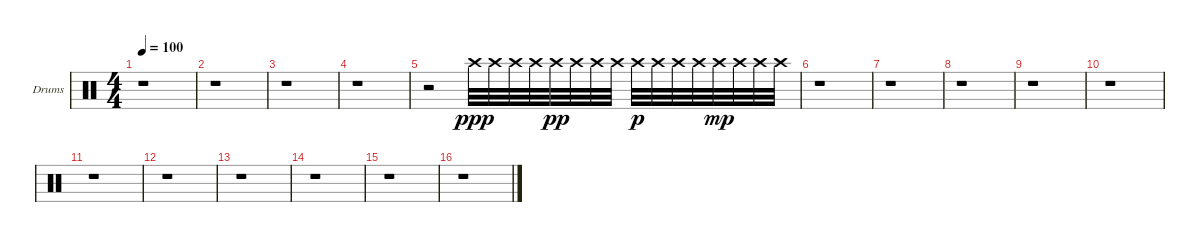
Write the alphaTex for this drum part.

\bracketExtendMode groupsimilarinstruments
\firstSystemTrackNameOrientation horizontal
\otherSystemsTrackNameOrientation horizontal
\track ("Drumkit (Christoph)" "Drums") {instrument percussion}
\staff {score}
\articulation defaults
\ts (4 4)
\tempo 100
\clef neutral
\ks c
r.1{dy f} |
r.1 |
r.1 |
r.1 |
r.2 "Crash high (hit)".32{dy ppp} "Crash high (hit)".32 "Crash high (hit)".32 "Crash high (hit)".32 "Crash high (hit)".32{dy pp} "Crash high (hit)".32 "Crash high (hit)".32 "Crash high (hit)".32 "Crash high (hit)".32{dy p} "Crash high (hit)".32 "Crash high (hit)".32 "Crash high (hit)".32 "Crash high (hit)".32{dy mp} "Crash high (hit)".32 "Crash high (hit)".32 "Crash high (hit)".32 |
r.1 |
r.1 |
r.1 |
r.1 |
r.1 |
r.1 |
r.1 |
r.1 |
r.1 |
r.1 |
r.1
